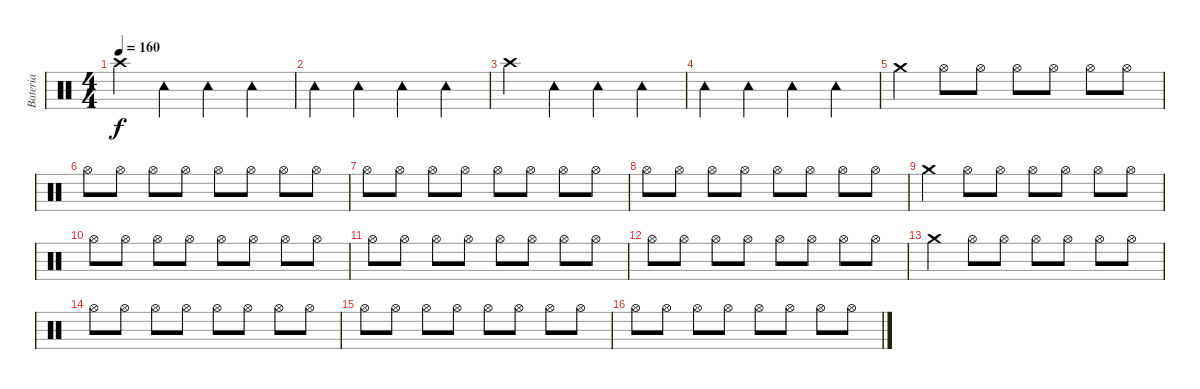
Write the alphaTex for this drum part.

\track ("Bateria" "Bateria") {instrument percussion}
\staff {score}
\articulation defaults
\ts (4 4)
\tempo 160
\clef neutral
\ks c "Crash high (hit)".4{dy f} "Tambourine (hit)".4 "Tambourine (hit)".4 "Tambourine (hit)".4
|
"Tambourine (hit)".4 "Tambourine (hit)".4 "Tambourine (hit)".4 "Tambourine (hit)".4 |
"Crash high (hit)".4 "Tambourine (hit)".4 "Tambourine (hit)".4 "Tambourine (hit)".4 |
"Tambourine (hit)".4 "Tambourine (hit)".4 "Tambourine (hit)".4 "Tambourine (hit)".4 |
"Crash medium (hit)".4 "Hi-Hat (open)".8 "Hi-Hat (open)".8 "Hi-Hat (open)".8 "Hi-Hat (open)".8 "Hi-Hat (open)".8 "Hi-Hat (open)".8 |
"Hi-Hat (open)".8 "Hi-Hat (open)".8 "Hi-Hat (open)".8 "Hi-Hat (open)".8 "Hi-Hat (open)".8 "Hi-Hat (open)".8 "Hi-Hat (open)".8 "Hi-Hat (open)".8 |
"Hi-Hat (open)".8 "Hi-Hat (open)".8 "Hi-Hat (open)".8 "Hi-Hat (open)".8 "Hi-Hat (open)".8 "Hi-Hat (open)".8 "Hi-Hat (open)".8 "Hi-Hat (open)".8 |
"Hi-Hat (open)".8 "Hi-Hat (open)".8 "Hi-Hat (open)".8 "Hi-Hat (open)".8 "Hi-Hat (open)".8 "Hi-Hat (open)".8 "Hi-Hat (open)".8 "Hi-Hat (open)".8 |
"Crash medium (hit)".4 "Hi-Hat (open)".8 "Hi-Hat (open)".8 "Hi-Hat (open)".8 "Hi-Hat (open)".8 "Hi-Hat (open)".8 "Hi-Hat (open)".8 |
"Hi-Hat (open)".8 "Hi-Hat (open)".8 "Hi-Hat (open)".8 "Hi-Hat (open)".8 "Hi-Hat (open)".8 "Hi-Hat (open)".8 "Hi-Hat (open)".8 "Hi-Hat (open)".8 |
"Hi-Hat (open)".8 "Hi-Hat (open)".8 "Hi-Hat (open)".8 "Hi-Hat (open)".8 "Hi-Hat (open)".8 "Hi-Hat (open)".8 "Hi-Hat (open)".8 "Hi-Hat (open)".8 |
"Hi-Hat (open)".8 "Hi-Hat (open)".8 "Hi-Hat (open)".8 "Hi-Hat (open)".8 "Hi-Hat (open)".8 "Hi-Hat (open)".8 "Hi-Hat (open)".8 "Hi-Hat (open)".8 |
"Crash medium (hit)".4 "Hi-Hat (open)".8 "Hi-Hat (open)".8 "Hi-Hat (open)".8 "Hi-Hat (open)".8 "Hi-Hat (open)".8 "Hi-Hat (open)".8 |
"Hi-Hat (open)".8 "Hi-Hat (open)".8 "Hi-Hat (open)".8 "Hi-Hat (open)".8 "Hi-Hat (open)".8 "Hi-Hat (open)".8 "Hi-Hat (open)".8 "Hi-Hat (open)".8 |
"Hi-Hat (open)".8 "Hi-Hat (open)".8 "Hi-Hat (open)".8 "Hi-Hat (open)".8 "Hi-Hat (open)".8 "Hi-Hat (open)".8 "Hi-Hat (open)".8 "Hi-Hat (open)".8 |
"Hi-Hat (open)".8 "Hi-Hat (open)".8 "Hi-Hat (open)".8 "Hi-Hat (open)".8 "Hi-Hat (open)".8 "Hi-Hat (open)".8 "Hi-Hat (open)".8 "Hi-Hat (open)".8
